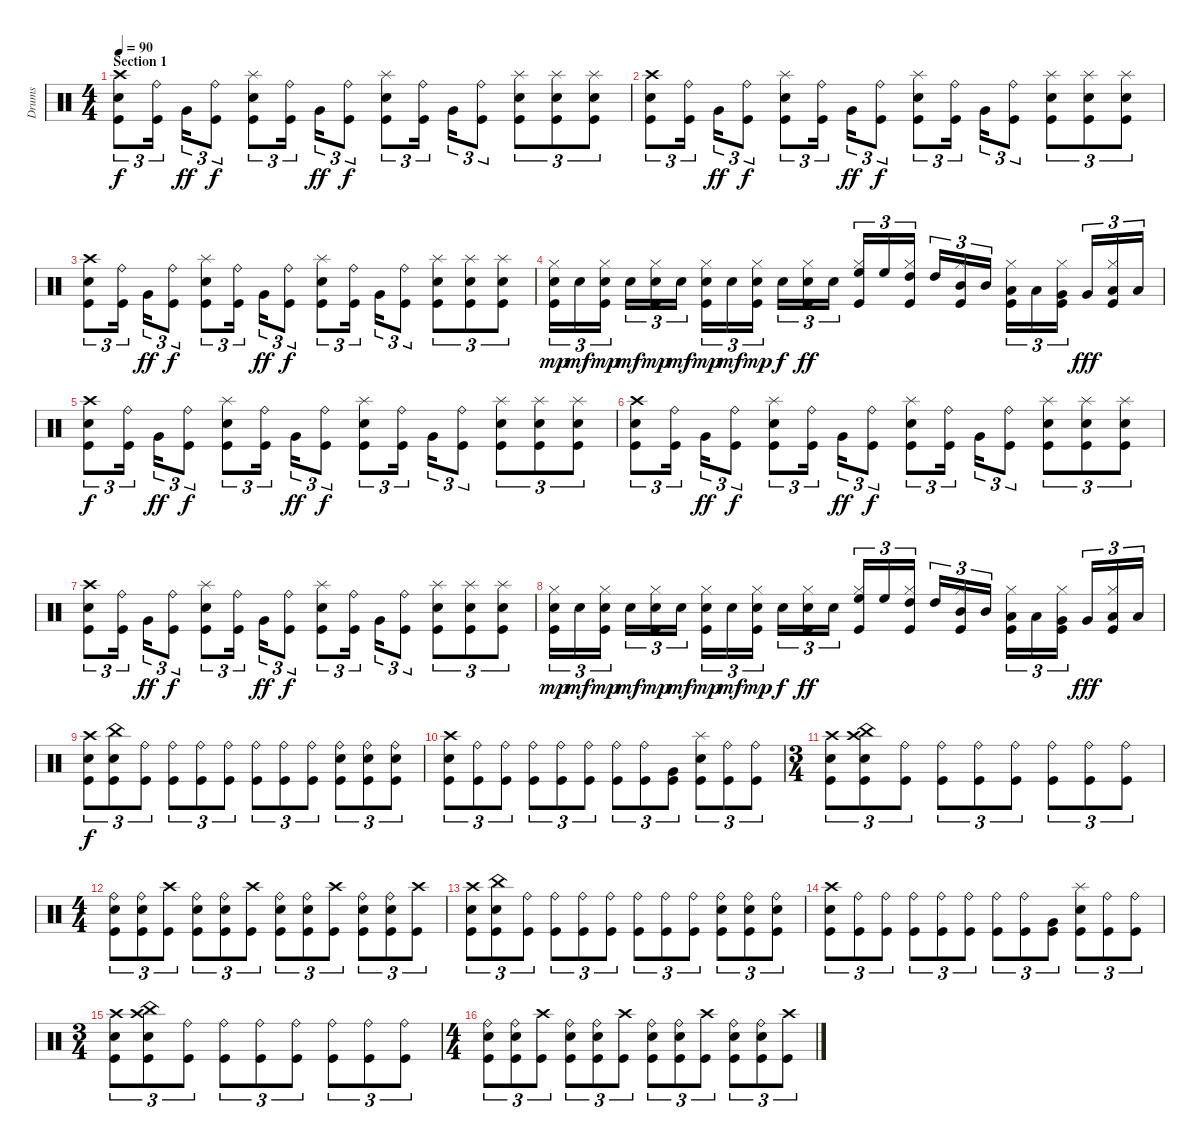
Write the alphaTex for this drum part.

\track ("Drums" "Drums") {instrument percussion}
\staff {score}
\articulation defaults
\ts (4 4)
\section ("" "Section 1")
\tempo 90
\clef neutral
\ks c
("Crash high (hit)" "Electric Snare (hit)" "Kick (hit)").8{tu (3 2) dy f} ("Ride (bell)" "Kick (hit)").16{tu (3 2)} "Very Low Tom (hit)".16{tu (3 2) dy ff} ("Ride (bell)" "Kick (hit)").8{tu (3 2) dy f} ("Splash (hit)" "Electric Snare (hit)" "Kick (hit)").8{tu (3 2)} ("Ride (bell)" "Kick (hit)").16{tu (3 2)} "Very Low Tom (hit)".16{tu (3 2) dy ff} ("Ride (bell)" "Kick (hit)").8{tu (3 2) dy f} ("Splash (hit)" "Electric Snare (hit)" "Kick (hit)").8{tu (3 2)} ("Ride (bell)" "Kick (hit)").16{tu (3 2)} "Very Low Tom (hit)".16{tu (3 2)} ("Ride (bell)" "Kick (hit)").8{tu (3 2)} ("Splash (hit)" "Electric Snare (hit)" "Kick (hit)").8{tu (3 2)} ("Splash (hit)" "Electric Snare (hit)" "Kick (hit)").8{tu (3 2)} ("Splash (hit)" "Electric Snare (hit)" "Kick (hit)").8{tu (3 2)} |
("Crash high (hit)" "Electric Snare (hit)" "Kick (hit)").8{tu (3 2)} ("Ride (bell)" "Kick (hit)").16{tu (3 2)} "Very Low Tom (hit)".16{tu (3 2) dy ff} ("Ride (bell)" "Kick (hit)").8{tu (3 2) dy f} ("Splash (hit)" "Electric Snare (hit)" "Kick (hit)").8{tu (3 2)} ("Ride (bell)" "Kick (hit)").16{tu (3 2)} "Very Low Tom (hit)".16{tu (3 2) dy ff} ("Ride (bell)" "Kick (hit)").8{tu (3 2) dy f} ("Splash (hit)" "Electric Snare (hit)" "Kick (hit)").8{tu (3 2)} ("Ride (bell)" "Kick (hit)").16{tu (3 2)} "Very Low Tom (hit)".16{tu (3 2)} ("Ride (bell)" "Kick (hit)").8{tu (3 2)} ("Splash (hit)" "Electric Snare (hit)" "Kick (hit)").8{tu (3 2)} ("Splash (hit)" "Electric Snare (hit)" "Kick (hit)").8{tu (3 2)} ("Splash (hit)" "Electric Snare (hit)" "Kick (hit)").8{tu (3 2)} |
("Crash high (hit)" "Electric Snare (hit)" "Kick (hit)").8{tu (3 2)} ("Ride (bell)" "Kick (hit)").16{tu (3 2)} "Very Low Tom (hit)".16{tu (3 2) dy ff} ("Ride (bell)" "Kick (hit)").8{tu (3 2) dy f} ("Splash (hit)" "Electric Snare (hit)" "Kick (hit)").8{tu (3 2)} ("Ride (bell)" "Kick (hit)").16{tu (3 2)} "Very Low Tom (hit)".16{tu (3 2) dy ff} ("Ride (bell)" "Kick (hit)").8{tu (3 2) dy f} ("Splash (hit)" "Electric Snare (hit)" "Kick (hit)").8{tu (3 2)} ("Ride (bell)" "Kick (hit)").16{tu (3 2)} "Very Low Tom (hit)".16{tu (3 2)} ("Ride (bell)" "Kick (hit)").8{tu (3 2)} ("Splash (hit)" "Electric Snare (hit)" "Kick (hit)").8{tu (3 2)} ("Splash (hit)" "Electric Snare (hit)" "Kick (hit)").8{tu (3 2)} ("Splash (hit)" "Electric Snare (hit)" "Kick (hit)").8{tu (3 2)} |
("Hi-Hat (closed)" "Electric Snare (hit)" "Kick (hit)").16{tu (3 2) dy mp} "Electric Snare (hit)".16{tu (3 2) dy mf} ("Hi-Hat (closed)" "Electric Snare (hit)" "Kick (hit)").16{tu (3 2) dy mp} "Electric Snare (hit)".16{tu (3 2) dy mf} ("Hi-Hat (closed)" "Electric Snare (hit)" "Kick (hit)").16{tu (3 2) dy mp} "Electric Snare (hit)".16{tu (3 2) dy mf} ("Hi-Hat (closed)" "Electric Snare (hit)" "Kick (hit)").16{tu (3 2) dy mp} "Electric Snare (hit)".16{tu (3 2) dy mf} ("Hi-Hat (closed)" "Electric Snare (hit)" "Kick (hit)").16{tu (3 2) dy mp} "Electric Snare (hit)".16{tu (3 2) dy f} ("Hi-Hat (closed)" "Electric Snare (hit)" "Kick (hit)").16{tu (3 2) dy ff} "Electric Snare (hit)".16{tu (3 2)} ("Hi-Hat (closed)" "High Floor Tom (hit)" "Kick (hit)").16{tu (3 2)} "High Floor Tom (hit)".16{tu (3 2)} ("Hi-Hat (closed)" "High Tom (hit)" "Kick (hit)").16{tu (3 2)} "High Tom (hit)".16{tu (3 2)} ("Hi-Hat (closed)" "Mid Tom (hit)" "Kick (hit)").16{tu (3 2)} "Mid Tom (hit)".16{tu (3 2)} ("Hi-Hat (closed)" "Low Tom (hit)" "Kick (hit)").16{tu (3 2)} "Low Tom (hit)".16{tu (3 2)} ("Hi-Hat (closed)" "Very Low Tom (hit)" "Kick (hit)").16{tu (3 2)} "Very Low Tom (hit)".16{tu (3 2) dy fff} ("Hi-Hat (closed)" "Low Floor Tom (hit)" "Kick (hit)").16{tu (3 2)} "Low Floor Tom (hit)".16{tu (3 2)} |
("Crash high (hit)" "Electric Snare (hit)" "Kick (hit)").8{tu (3 2) dy f} ("Ride (bell)" "Kick (hit)").16{tu (3 2)} "Very Low Tom (hit)".16{tu (3 2) dy ff} ("Ride (bell)" "Kick (hit)").8{tu (3 2) dy f} ("Splash (hit)" "Electric Snare (hit)" "Kick (hit)").8{tu (3 2)} ("Ride (bell)" "Kick (hit)").16{tu (3 2)} "Very Low Tom (hit)".16{tu (3 2) dy ff} ("Ride (bell)" "Kick (hit)").8{tu (3 2) dy f} ("Splash (hit)" "Electric Snare (hit)" "Kick (hit)").8{tu (3 2)} ("Ride (bell)" "Kick (hit)").16{tu (3 2)} "Very Low Tom (hit)".16{tu (3 2)} ("Ride (bell)" "Kick (hit)").8{tu (3 2)} ("Splash (hit)" "Electric Snare (hit)" "Kick (hit)").8{tu (3 2)} ("Splash (hit)" "Electric Snare (hit)" "Kick (hit)").8{tu (3 2)} ("Splash (hit)" "Electric Snare (hit)" "Kick (hit)").8{tu (3 2)} |
("Crash high (hit)" "Electric Snare (hit)" "Kick (hit)").8{tu (3 2)} ("Ride (bell)" "Kick (hit)").16{tu (3 2)} "Very Low Tom (hit)".16{tu (3 2) dy ff} ("Ride (bell)" "Kick (hit)").8{tu (3 2) dy f} ("Splash (hit)" "Electric Snare (hit)" "Kick (hit)").8{tu (3 2)} ("Ride (bell)" "Kick (hit)").16{tu (3 2)} "Very Low Tom (hit)".16{tu (3 2) dy ff} ("Ride (bell)" "Kick (hit)").8{tu (3 2) dy f} ("Splash (hit)" "Electric Snare (hit)" "Kick (hit)").8{tu (3 2)} ("Ride (bell)" "Kick (hit)").16{tu (3 2)} "Very Low Tom (hit)".16{tu (3 2)} ("Ride (bell)" "Kick (hit)").8{tu (3 2)} ("Splash (hit)" "Electric Snare (hit)" "Kick (hit)").8{tu (3 2)} ("Splash (hit)" "Electric Snare (hit)" "Kick (hit)").8{tu (3 2)} ("Splash (hit)" "Electric Snare (hit)" "Kick (hit)").8{tu (3 2)} |
("Crash high (hit)" "Electric Snare (hit)" "Kick (hit)").8{tu (3 2)} ("Ride (bell)" "Kick (hit)").16{tu (3 2)} "Very Low Tom (hit)".16{tu (3 2) dy ff} ("Ride (bell)" "Kick (hit)").8{tu (3 2) dy f} ("Splash (hit)" "Electric Snare (hit)" "Kick (hit)").8{tu (3 2)} ("Ride (bell)" "Kick (hit)").16{tu (3 2)} "Very Low Tom (hit)".16{tu (3 2) dy ff} ("Ride (bell)" "Kick (hit)").8{tu (3 2) dy f} ("Splash (hit)" "Electric Snare (hit)" "Kick (hit)").8{tu (3 2)} ("Ride (bell)" "Kick (hit)").16{tu (3 2)} "Very Low Tom (hit)".16{tu (3 2)} ("Ride (bell)" "Kick (hit)").8{tu (3 2)} ("Splash (hit)" "Electric Snare (hit)" "Kick (hit)").8{tu (3 2)} ("Splash (hit)" "Electric Snare (hit)" "Kick (hit)").8{tu (3 2)} ("Splash (hit)" "Electric Snare (hit)" "Kick (hit)").8{tu (3 2)} |
("Hi-Hat (closed)" "Electric Snare (hit)" "Kick (hit)").16{tu (3 2) dy mp} "Electric Snare (hit)".16{tu (3 2) dy mf} ("Hi-Hat (closed)" "Electric Snare (hit)" "Kick (hit)").16{tu (3 2) dy mp} "Electric Snare (hit)".16{tu (3 2) dy mf} ("Hi-Hat (closed)" "Electric Snare (hit)" "Kick (hit)").16{tu (3 2) dy mp} "Electric Snare (hit)".16{tu (3 2) dy mf} ("Hi-Hat (closed)" "Electric Snare (hit)" "Kick (hit)").16{tu (3 2) dy mp} "Electric Snare (hit)".16{tu (3 2) dy mf} ("Hi-Hat (closed)" "Electric Snare (hit)" "Kick (hit)").16{tu (3 2) dy mp} "Electric Snare (hit)".16{tu (3 2) dy f} ("Hi-Hat (closed)" "Electric Snare (hit)" "Kick (hit)").16{tu (3 2) dy ff} "Electric Snare (hit)".16{tu (3 2)} ("Hi-Hat (closed)" "High Floor Tom (hit)" "Kick (hit)").16{tu (3 2)} "High Floor Tom (hit)".16{tu (3 2)} ("Hi-Hat (closed)" "High Tom (hit)" "Kick (hit)").16{tu (3 2)} "High Tom (hit)".16{tu (3 2)} ("Hi-Hat (closed)" "Mid Tom (hit)" "Kick (hit)").16{tu (3 2)} "Mid Tom (hit)".16{tu (3 2)} ("Hi-Hat (closed)" "Low Tom (hit)" "Kick (hit)").16{tu (3 2)} "Low Tom (hit)".16{tu (3 2)} ("Hi-Hat (closed)" "Very Low Tom (hit)" "Kick (hit)").16{tu (3 2)} "Very Low Tom (hit)".16{tu (3 2) dy fff} ("Hi-Hat (closed)" "Low Floor Tom (hit)" "Kick (hit)").16{tu (3 2)} "Low Floor Tom (hit)".16{tu (3 2)} |
("Crash high (hit)" "Electric Snare (hit)" "Kick (hit)").8{tu (3 2) dy f} ("China (hit)" "Electric Snare (hit)" "Kick (hit)").8{tu (3 2)} ("Ride (bell)" "Kick (hit)").8{tu (3 2)} ("Ride (bell)" "Kick (hit)").8{tu (3 2)} ("Ride (bell)" "Kick (hit)").8{tu (3 2)} ("Ride (bell)" "Kick (hit)").8{tu (3 2)} ("Ride (bell)" "Kick (hit)").8{tu (3 2)} ("Ride (bell)" "Kick (hit)").8{tu (3 2)} ("Ride (bell)" "Kick (hit)").8{tu (3 2)} ("Ride (bell)" "Electric Snare (hit)" "Kick (hit)").8{tu (3 2)} ("Ride (bell)" "Electric Snare (hit)" "Kick (hit)").8{tu (3 2)} ("Ride (bell)" "Electric Snare (hit)" "Kick (hit)").8{tu (3 2)} |
("Crash high (hit)" "Electric Snare (hit)" "Kick (hit)").8{tu (3 2)} ("Ride (bell)" "Kick (hit)").8{tu (3 2)} ("Ride (bell)" "Kick (hit)").8{tu (3 2)} ("Ride (bell)" "Kick (hit)").8{tu (3 2)} ("Ride (bell)" "Kick (hit)").8{tu (3 2)} ("Ride (bell)" "Kick (hit)").8{tu (3 2)} ("Ride (bell)" "Kick (hit)").8{tu (3 2)} ("Ride (bell)" "Kick (hit)").8{tu (3 2)} ("Very Low Tom (hit)" "Kick (hit)").8{tu (3 2)} ("Splash (hit)" "Electric Snare (hit)" "Kick (hit)").8{tu (3 2)} ("Ride (bell)" "Kick (hit)").8{tu (3 2)} ("Ride (bell)" "Kick (hit)").8{tu (3 2)} |
\ts (3 4)
("Crash high (hit)" "Electric Snare (hit)" "Kick (hit)").8{tu (3 2)} ("Crash high (hit)" "China (hit)" "Electric Snare (hit)" "Kick (hit)").8{tu (3 2)} ("Ride (bell)" "Kick (hit)").8{tu (3 2)} ("Ride (bell)" "Kick (hit)").8{tu (3 2)} ("Ride (bell)" "Kick (hit)").8{tu (3 2)} ("Ride (bell)" "Kick (hit)").8{tu (3 2)} ("Ride (bell)" "Kick (hit)").8{tu (3 2)} ("Ride (bell)" "Kick (hit)").8{tu (3 2)} ("Ride (bell)" "Kick (hit)").8{tu (3 2)} |
\ts (4 4)
("Ride (bell)" "Electric Snare (hit)" "Kick (hit)").8{tu (3 2)} ("Ride (bell)" "Electric Snare (hit)" "Kick (hit)").8{tu (3 2)} ("Crash high (hit)" "Kick (hit)").8{tu (3 2)} ("Ride (bell)" "Electric Snare (hit)" "Kick (hit)").8{tu (3 2)} ("Ride (bell)" "Electric Snare (hit)" "Kick (hit)").8{tu (3 2)} ("Crash high (hit)" "Kick (hit)").8{tu (3 2)} ("Ride (bell)" "Electric Snare (hit)" "Kick (hit)").8{tu (3 2)} ("Ride (bell)" "Electric Snare (hit)" "Kick (hit)").8{tu (3 2)} ("Crash high (hit)" "Kick (hit)").8{tu (3 2)} ("Ride (bell)" "Electric Snare (hit)" "Kick (hit)").8{tu (3 2)} ("Ride (bell)" "Electric Snare (hit)" "Kick (hit)").8{tu (3 2)} ("Crash high (hit)" "Kick (hit)").8{tu (3 2)} |
("Crash high (hit)" "Electric Snare (hit)" "Kick (hit)").8{tu (3 2)} ("China (hit)" "Electric Snare (hit)" "Kick (hit)").8{tu (3 2)} ("Ride (bell)" "Kick (hit)").8{tu (3 2)} ("Ride (bell)" "Kick (hit)").8{tu (3 2)} ("Ride (bell)" "Kick (hit)").8{tu (3 2)} ("Ride (bell)" "Kick (hit)").8{tu (3 2)} ("Ride (bell)" "Kick (hit)").8{tu (3 2)} ("Ride (bell)" "Kick (hit)").8{tu (3 2)} ("Ride (bell)" "Kick (hit)").8{tu (3 2)} ("Ride (bell)" "Electric Snare (hit)" "Kick (hit)").8{tu (3 2)} ("Ride (bell)" "Electric Snare (hit)" "Kick (hit)").8{tu (3 2)} ("Ride (bell)" "Electric Snare (hit)" "Kick (hit)").8{tu (3 2)} |
("Crash high (hit)" "Electric Snare (hit)" "Kick (hit)").8{tu (3 2)} ("Ride (bell)" "Kick (hit)").8{tu (3 2)} ("Ride (bell)" "Kick (hit)").8{tu (3 2)} ("Ride (bell)" "Kick (hit)").8{tu (3 2)} ("Ride (bell)" "Kick (hit)").8{tu (3 2)} ("Ride (bell)" "Kick (hit)").8{tu (3 2)} ("Ride (bell)" "Kick (hit)").8{tu (3 2)} ("Ride (bell)" "Kick (hit)").8{tu (3 2)} ("Very Low Tom (hit)" "Kick (hit)").8{tu (3 2)} ("Splash (hit)" "Electric Snare (hit)" "Kick (hit)").8{tu (3 2)} ("Ride (bell)" "Kick (hit)").8{tu (3 2)} ("Ride (bell)" "Kick (hit)").8{tu (3 2)} |
\ts (3 4)
("Crash high (hit)" "Electric Snare (hit)" "Kick (hit)").8{tu (3 2)} ("Crash high (hit)" "China (hit)" "Electric Snare (hit)" "Kick (hit)").8{tu (3 2)} ("Ride (bell)" "Kick (hit)").8{tu (3 2)} ("Ride (bell)" "Kick (hit)").8{tu (3 2)} ("Ride (bell)" "Kick (hit)").8{tu (3 2)} ("Ride (bell)" "Kick (hit)").8{tu (3 2)} ("Ride (bell)" "Kick (hit)").8{tu (3 2)} ("Ride (bell)" "Kick (hit)").8{tu (3 2)} ("Ride (bell)" "Kick (hit)").8{tu (3 2)} |
\ts (4 4)
("Ride (bell)" "Electric Snare (hit)" "Kick (hit)").8{tu (3 2)} ("Ride (bell)" "Electric Snare (hit)" "Kick (hit)").8{tu (3 2)} ("Crash high (hit)" "Kick (hit)").8{tu (3 2)} ("Ride (bell)" "Electric Snare (hit)" "Kick (hit)").8{tu (3 2)} ("Ride (bell)" "Electric Snare (hit)" "Kick (hit)").8{tu (3 2)} ("Crash high (hit)" "Kick (hit)").8{tu (3 2)} ("Ride (bell)" "Electric Snare (hit)" "Kick (hit)").8{tu (3 2)} ("Ride (bell)" "Electric Snare (hit)" "Kick (hit)").8{tu (3 2)} ("Crash high (hit)" "Kick (hit)").8{tu (3 2)} ("Ride (bell)" "Electric Snare (hit)" "Kick (hit)").8{tu (3 2)} ("Ride (bell)" "Electric Snare (hit)" "Kick (hit)").8{tu (3 2)} ("Crash high (hit)" "Kick (hit)").8{tu (3 2)}
